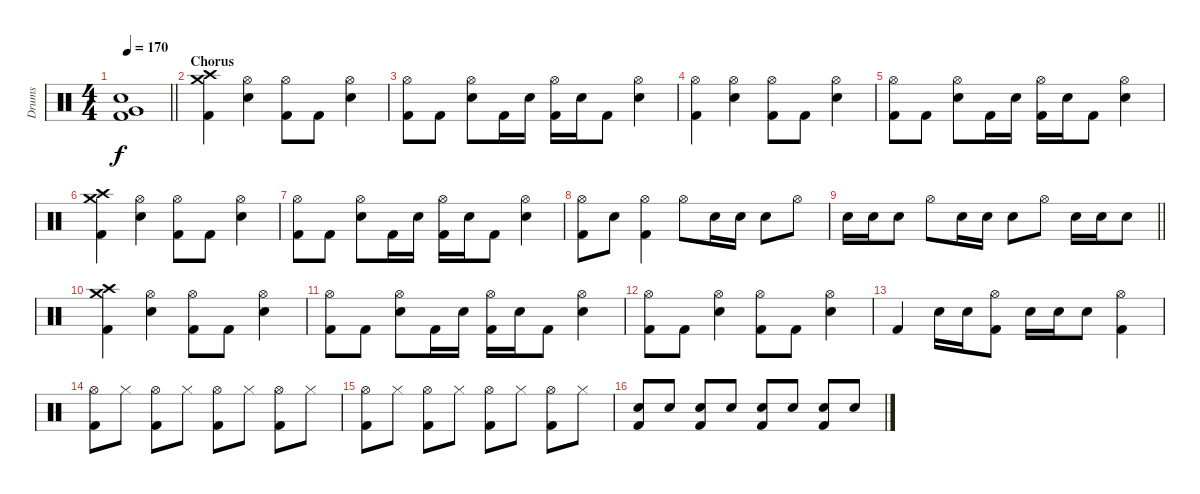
\track ("Drums" "Drums") {instrument percussion}
\staff {score}
\articulation defaults
\ts (4 4)
\tempo 170
\clef neutral
\barLineRight lightlight
\ks c
("Very Low Tom (hit)" "Kick (hit) 2" "Electric Snare (hit)").1{dy f} |
\section ("" "Chorus")
("Kick (hit) 2" "Crash medium (hit)" "Crash high (hit)").4 ("Electric Snare (hit)" "Hi-Hat (open)").4 ("Kick (hit) 2" "Hi-Hat (open)").8 "Kick (hit) 2".8 ("Electric Snare (hit)" "Hi-Hat (open)").4 |
("Kick (hit) 2" "Hi-Hat (open)").8 "Kick (hit) 2".8 ("Electric Snare (hit)" "Hi-Hat (open)").8 "Kick (hit) 2".16 "Electric Snare (hit)".16 ("Kick (hit) 2" "Hi-Hat (open)").16 "Electric Snare (hit)".16 "Kick (hit) 2".8 ("Electric Snare (hit)" "Hi-Hat (open)").4 |
("Kick (hit) 2" "Hi-Hat (open)").4 ("Electric Snare (hit)" "Hi-Hat (open)").4 ("Kick (hit) 2" "Hi-Hat (open)").8 "Kick (hit) 2".8 ("Electric Snare (hit)" "Hi-Hat (open)").4 |
("Kick (hit) 2" "Hi-Hat (open)").8 "Kick (hit) 2".8 ("Electric Snare (hit)" "Hi-Hat (open)").8 "Kick (hit) 2".16 "Electric Snare (hit)".16 ("Kick (hit) 2" "Hi-Hat (open)").16 "Electric Snare (hit)".16 "Kick (hit) 2".8 ("Electric Snare (hit)" "Hi-Hat (open)").4 |
("Kick (hit) 2" "Crash medium (hit)" "Crash high (hit)").4 ("Electric Snare (hit)" "Hi-Hat (open)").4 ("Kick (hit) 2" "Hi-Hat (open)").8 "Kick (hit) 2".8 ("Electric Snare (hit)" "Hi-Hat (open)").4 |
("Kick (hit) 2" "Hi-Hat (open)").8 "Kick (hit) 2".8 ("Electric Snare (hit)" "Hi-Hat (open)").8 "Kick (hit) 2".16 "Electric Snare (hit)".16 ("Kick (hit) 2" "Hi-Hat (open)").16 "Electric Snare (hit)".16 "Kick (hit) 2".8 ("Electric Snare (hit)" "Hi-Hat (open)").4 |
("Kick (hit) 2" "Hi-Hat (open)").8 "Electric Snare (hit)".8 ("Kick (hit) 2" "Hi-Hat (open)").4 "Hi-Hat (open)".8 "Electric Snare (hit)".16 "Electric Snare (hit)".16 "Electric Snare (hit)".8 "Hi-Hat (open)".8 |
\barLineRight lightlight "Electric Snare (hit)".16 "Electric Snare (hit)".16 "Electric Snare (hit)".8 "Hi-Hat (open)".8 "Electric Snare (hit)".16 "Electric Snare (hit)".16 "Electric Snare (hit)".8 "Hi-Hat (open)".8 "Electric Snare (hit)".16 "Electric Snare (hit)".16 "Electric Snare (hit)".8
|
("Kick (hit) 2" "Crash medium (hit)" "Crash high (hit)").4 ("Electric Snare (hit)" "Hi-Hat (open)").4 ("Kick (hit) 2" "Hi-Hat (open)").8 "Kick (hit) 2".8 ("Electric Snare (hit)" "Hi-Hat (open)").4 |
("Kick (hit) 2" "Hi-Hat (open)").8 "Kick (hit) 2".8 ("Electric Snare (hit)" "Hi-Hat (open)").8 "Kick (hit) 2".16 "Electric Snare (hit)".16 ("Kick (hit) 2" "Hi-Hat (open)").16 "Electric Snare (hit)".16 "Kick (hit) 2".8 ("Electric Snare (hit)" "Hi-Hat (open)").4 |
("Kick (hit) 2" "Hi-Hat (open)").8 "Kick (hit) 2".8 ("Electric Snare (hit)" "Hi-Hat (open)").4 ("Kick (hit) 2" "Hi-Hat (open)").8 "Kick (hit) 2".8 ("Electric Snare (hit)" "Hi-Hat (open)").4 |
"Kick (hit) 2".4 "Electric Snare (hit)".16 "Electric Snare (hit)".16 ("Kick (hit) 2" "Hi-Hat (open)").8 "Electric Snare (hit)".16 "Electric Snare (hit)".16 "Electric Snare (hit)".8 ("Kick (hit) 2" "Hi-Hat (open)").4 |
("Kick (hit) 2" "Hi-Hat (open)").8 "Hi-Hat (closed)".8 ("Kick (hit) 2" "Hi-Hat (open)").8 "Hi-Hat (closed)".8 ("Kick (hit) 2" "Hi-Hat (open)").8 "Hi-Hat (closed)".8 ("Kick (hit) 2" "Hi-Hat (open)").8 "Hi-Hat (closed)".8 |
("Kick (hit) 2" "Hi-Hat (open)").8 "Hi-Hat (closed)".8 ("Kick (hit) 2" "Hi-Hat (open)").8 "Hi-Hat (closed)".8 ("Kick (hit) 2" "Hi-Hat (open)").8 "Hi-Hat (closed)".8 ("Kick (hit) 2" "Hi-Hat (open)").8 "Hi-Hat (closed)".8 |
("Electric Snare (hit)" "Kick (hit) 2").8 "Electric Snare (hit)".8 ("Electric Snare (hit)" "Kick (hit) 2").8 "Electric Snare (hit)".8 ("Electric Snare (hit)" "Kick (hit) 2").8 "Electric Snare (hit)".8 ("Electric Snare (hit)" "Kick (hit) 2").8 "Electric Snare (hit)".8
